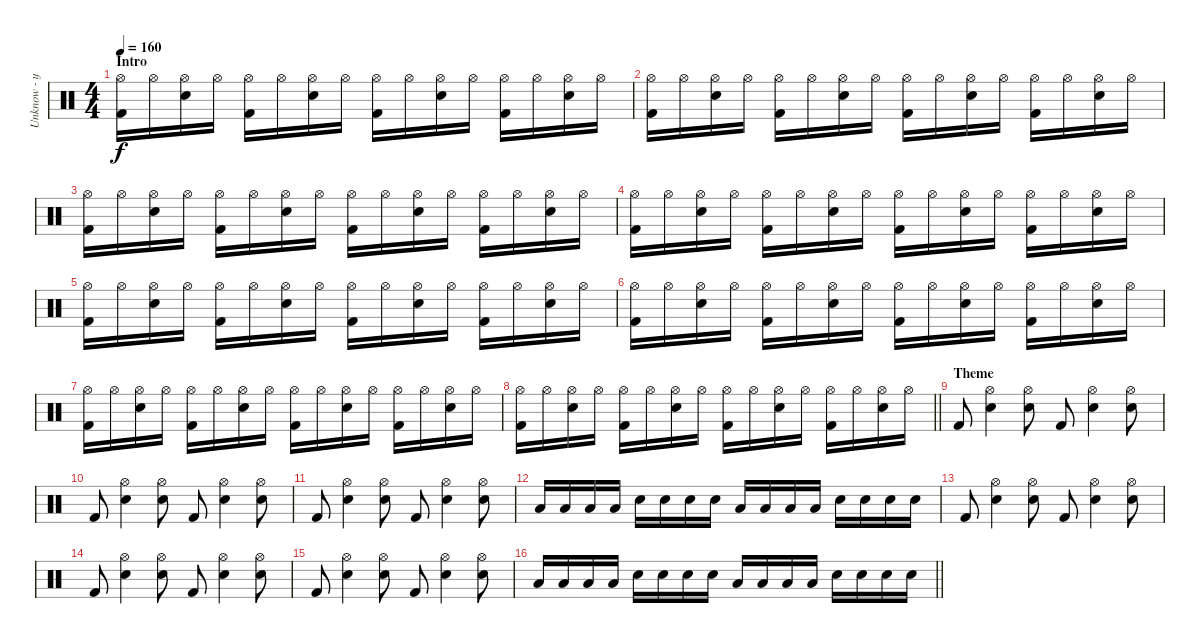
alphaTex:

\track ("Unknow - ударные" "Unknow - у") {instrument percussion}
\staff {score}
\articulation defaults
\ts (4 4)
\section ("" "Intro")
\tempo 160
\clef neutral
\ks c
("Hi-Hat (open)" "Kick (hit) 2").16{dy f} "Hi-Hat (open)".16 ("Hi-Hat (open)" "Snare (hit) 2").16 "Hi-Hat (open)".16 ("Hi-Hat (open)" "Kick (hit) 2").16 "Hi-Hat (open)".16 ("Hi-Hat (open)" "Snare (hit) 2").16 "Hi-Hat (open)".16 ("Hi-Hat (open)" "Kick (hit) 2").16 "Hi-Hat (open)".16 ("Hi-Hat (open)" "Snare (hit) 2").16 "Hi-Hat (open)".16 ("Hi-Hat (open)" "Kick (hit) 2").16 "Hi-Hat (open)".16 ("Hi-Hat (open)" "Snare (hit) 2").16 "Hi-Hat (open)".16 |
("Hi-Hat (open)" "Kick (hit) 2").16 "Hi-Hat (open)".16 ("Hi-Hat (open)" "Snare (hit) 2").16 "Hi-Hat (open)".16 ("Hi-Hat (open)" "Kick (hit) 2").16 "Hi-Hat (open)".16 ("Hi-Hat (open)" "Snare (hit) 2").16 "Hi-Hat (open)".16 ("Hi-Hat (open)" "Kick (hit) 2").16 "Hi-Hat (open)".16 ("Hi-Hat (open)" "Snare (hit) 2").16 "Hi-Hat (open)".16 ("Hi-Hat (open)" "Kick (hit) 2").16 "Hi-Hat (open)".16 ("Hi-Hat (open)" "Snare (hit) 2").16 "Hi-Hat (open)".16 |
("Hi-Hat (open)" "Kick (hit) 2").16 "Hi-Hat (open)".16 ("Hi-Hat (open)" "Snare (hit) 2").16 "Hi-Hat (open)".16 ("Hi-Hat (open)" "Kick (hit) 2").16 "Hi-Hat (open)".16 ("Hi-Hat (open)" "Snare (hit) 2").16 "Hi-Hat (open)".16 ("Hi-Hat (open)" "Kick (hit) 2").16 "Hi-Hat (open)".16 ("Hi-Hat (open)" "Snare (hit) 2").16 "Hi-Hat (open)".16 ("Hi-Hat (open)" "Kick (hit) 2").16 "Hi-Hat (open)".16 ("Hi-Hat (open)" "Snare (hit) 2").16 "Hi-Hat (open)".16 |
("Hi-Hat (open)" "Kick (hit) 2").16 "Hi-Hat (open)".16 ("Hi-Hat (open)" "Snare (hit) 2").16 "Hi-Hat (open)".16 ("Hi-Hat (open)" "Kick (hit) 2").16 "Hi-Hat (open)".16 ("Hi-Hat (open)" "Snare (hit) 2").16 "Hi-Hat (open)".16 ("Hi-Hat (open)" "Kick (hit) 2").16 "Hi-Hat (open)".16 ("Hi-Hat (open)" "Snare (hit) 2").16 "Hi-Hat (open)".16 ("Hi-Hat (open)" "Kick (hit) 2").16 "Hi-Hat (open)".16 ("Hi-Hat (open)" "Snare (hit) 2").16 "Hi-Hat (open)".16 |
("Hi-Hat (open)" "Kick (hit) 2").16 "Hi-Hat (open)".16 ("Hi-Hat (open)" "Snare (hit) 2").16 "Hi-Hat (open)".16 ("Hi-Hat (open)" "Kick (hit) 2").16 "Hi-Hat (open)".16 ("Hi-Hat (open)" "Snare (hit) 2").16 "Hi-Hat (open)".16 ("Hi-Hat (open)" "Kick (hit) 2").16 "Hi-Hat (open)".16 ("Hi-Hat (open)" "Snare (hit) 2").16 "Hi-Hat (open)".16 ("Hi-Hat (open)" "Kick (hit) 2").16 "Hi-Hat (open)".16 ("Hi-Hat (open)" "Snare (hit) 2").16 "Hi-Hat (open)".16 |
("Hi-Hat (open)" "Kick (hit) 2").16 "Hi-Hat (open)".16 ("Hi-Hat (open)" "Snare (hit) 2").16 "Hi-Hat (open)".16 ("Hi-Hat (open)" "Kick (hit) 2").16 "Hi-Hat (open)".16 ("Hi-Hat (open)" "Snare (hit) 2").16 "Hi-Hat (open)".16 ("Hi-Hat (open)" "Kick (hit) 2").16 "Hi-Hat (open)".16 ("Hi-Hat (open)" "Snare (hit) 2").16 "Hi-Hat (open)".16 ("Hi-Hat (open)" "Kick (hit) 2").16 "Hi-Hat (open)".16 ("Hi-Hat (open)" "Snare (hit) 2").16 "Hi-Hat (open)".16 |
("Hi-Hat (open)" "Kick (hit) 2").16 "Hi-Hat (open)".16 ("Hi-Hat (open)" "Snare (hit) 2").16 "Hi-Hat (open)".16 ("Hi-Hat (open)" "Kick (hit) 2").16 "Hi-Hat (open)".16 ("Hi-Hat (open)" "Snare (hit) 2").16 "Hi-Hat (open)".16 ("Hi-Hat (open)" "Kick (hit) 2").16 "Hi-Hat (open)".16 ("Hi-Hat (open)" "Snare (hit) 2").16 "Hi-Hat (open)".16 ("Hi-Hat (open)" "Kick (hit) 2").16 "Hi-Hat (open)".16 ("Hi-Hat (open)" "Snare (hit) 2").16 "Hi-Hat (open)".16 |
\barLineRight lightlight
("Hi-Hat (open)" "Kick (hit) 2").16 "Hi-Hat (open)".16 ("Hi-Hat (open)" "Snare (hit) 2").16 "Hi-Hat (open)".16 ("Hi-Hat (open)" "Kick (hit) 2").16 "Hi-Hat (open)".16 ("Hi-Hat (open)" "Snare (hit) 2").16 "Hi-Hat (open)".16 ("Hi-Hat (open)" "Kick (hit) 2").16 "Hi-Hat (open)".16 ("Hi-Hat (open)" "Snare (hit) 2").16 "Hi-Hat (open)".16 ("Hi-Hat (open)" "Kick (hit) 2").16 "Hi-Hat (open)".16 ("Hi-Hat (open)" "Snare (hit) 2").16 "Hi-Hat (open)".16 |
\section ("" "Theme")
"Kick (hit) 2".8 ("Hi-Hat (open)" "Snare (hit) 2").4 ("Hi-Hat (open)" "Snare (hit) 2").8 "Kick (hit) 2".8 ("Hi-Hat (open)" "Snare (hit) 2").4 ("Hi-Hat (open)" "Snare (hit) 2").8 |
"Kick (hit) 2".8 ("Hi-Hat (open)" "Snare (hit) 2").4 ("Hi-Hat (open)" "Snare (hit) 2").8 "Kick (hit) 2".8 ("Hi-Hat (open)" "Snare (hit) 2").4 ("Hi-Hat (open)" "Snare (hit) 2").8 |
"Kick (hit) 2".8 ("Hi-Hat (open)" "Snare (hit) 2").4 ("Hi-Hat (open)" "Snare (hit) 2").8 "Kick (hit) 2".8 ("Hi-Hat (open)" "Snare (hit) 2").4 ("Hi-Hat (open)" "Snare (hit) 2").8 |
"Low Floor Tom (hit)".16 "Low Floor Tom (hit)".16 "Low Floor Tom (hit)".16 "Low Floor Tom (hit)".16 "Snare (hit) 2".16 "Snare (hit) 2".16 "Snare (hit) 2".16 "Snare (hit) 2".16 "Low Floor Tom (hit)".16 "Low Floor Tom (hit)".16 "Low Floor Tom (hit)".16 "Low Floor Tom (hit)".16 "Snare (hit) 2".16 "Snare (hit) 2".16 "Snare (hit) 2".16 "Snare (hit) 2".16 |
"Kick (hit) 2".8 ("Hi-Hat (open)" "Snare (hit) 2").4 ("Hi-Hat (open)" "Snare (hit) 2").8 "Kick (hit) 2".8 ("Hi-Hat (open)" "Snare (hit) 2").4 ("Hi-Hat (open)" "Snare (hit) 2").8 |
"Kick (hit) 2".8 ("Hi-Hat (open)" "Snare (hit) 2").4 ("Hi-Hat (open)" "Snare (hit) 2").8 "Kick (hit) 2".8 ("Hi-Hat (open)" "Snare (hit) 2").4 ("Hi-Hat (open)" "Snare (hit) 2").8 |
"Kick (hit) 2".8 ("Hi-Hat (open)" "Snare (hit) 2").4 ("Hi-Hat (open)" "Snare (hit) 2").8 "Kick (hit) 2".8 ("Hi-Hat (open)" "Snare (hit) 2").4 ("Hi-Hat (open)" "Snare (hit) 2").8 |
\barLineRight lightlight "Low Floor Tom (hit)".16 "Low Floor Tom (hit)".16 "Low Floor Tom (hit)".16 "Low Floor Tom (hit)".16 "Snare (hit) 2".16 "Snare (hit) 2".16 "Snare (hit) 2".16 "Snare (hit) 2".16 "Low Floor Tom (hit)".16 "Low Floor Tom (hit)".16 "Low Floor Tom (hit)".16 "Low Floor Tom (hit)".16 "Snare (hit) 2".16 "Snare (hit) 2".16 "Snare (hit) 2".16 "Snare (hit) 2".16
